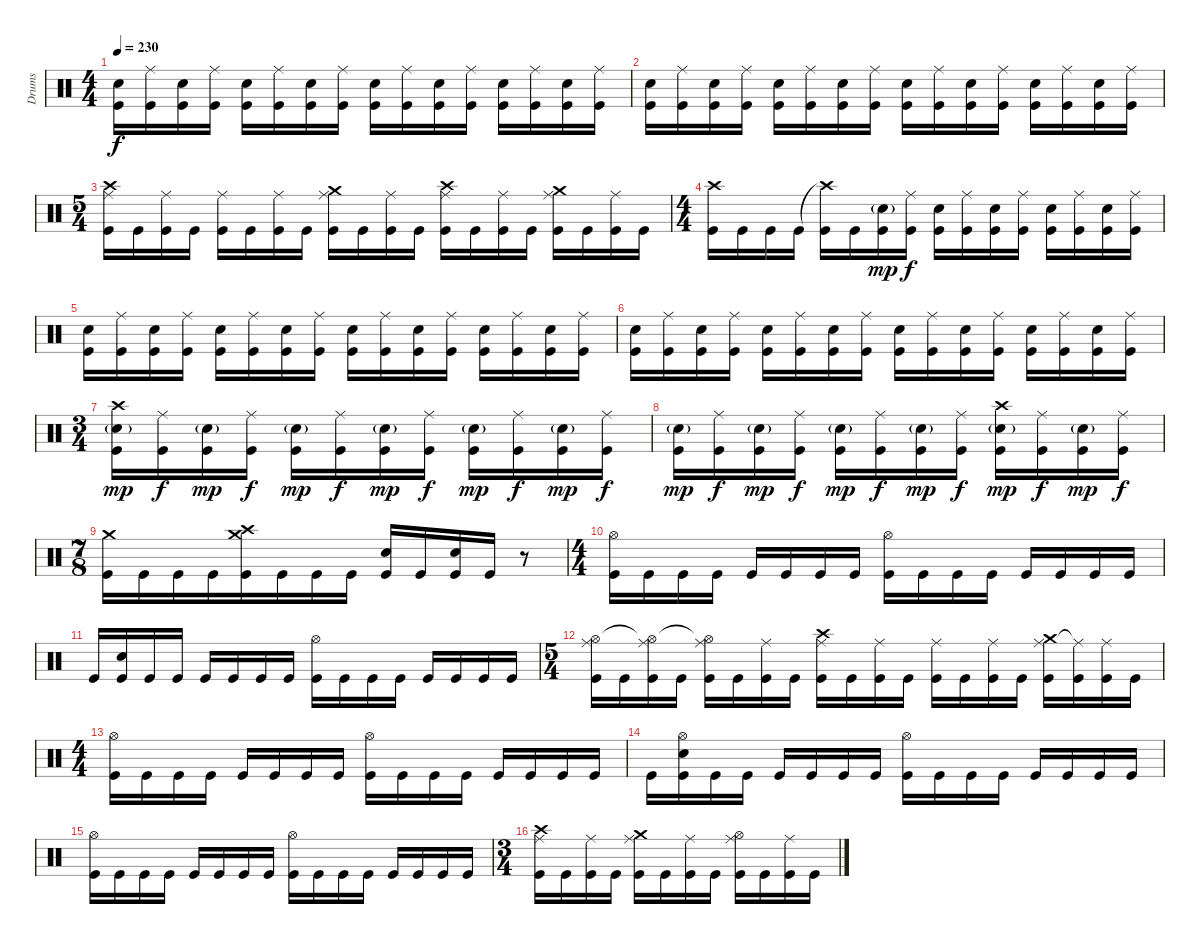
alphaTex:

\track ("Drums" "Drums") {instrument percussion}
\staff {score}
\articulation defaults
\ts (4 4)
\tempo 230
\clef neutral
\ks c
("Electric Snare (hit)" "Kick (hit)").16{dy f} ("Ride (middle)" "Kick (hit)").16 ("Electric Snare (hit)" "Kick (hit)").16 ("Ride (middle)" "Kick (hit)").16 ("Electric Snare (hit)" "Kick (hit)").16 ("Ride (middle)" "Kick (hit)").16 ("Electric Snare (hit)" "Kick (hit)").16 ("Ride (middle)" "Kick (hit)").16 ("Electric Snare (hit)" "Kick (hit)").16 ("Ride (middle)" "Kick (hit)").16 ("Electric Snare (hit)" "Kick (hit)").16 ("Ride (middle)" "Kick (hit)").16 ("Electric Snare (hit)" "Kick (hit)").16 ("Ride (middle)" "Kick (hit)").16 ("Electric Snare (hit)" "Kick (hit)").16 ("Ride (middle)" "Kick (hit)").16 |
("Electric Snare (hit)" "Kick (hit)").16 ("Ride (middle)" "Kick (hit)").16 ("Electric Snare (hit)" "Kick (hit)").16 ("Ride (middle)" "Kick (hit)").16 ("Electric Snare (hit)" "Kick (hit)").16 ("Ride (middle)" "Kick (hit)").16 ("Electric Snare (hit)" "Kick (hit)").16 ("Ride (middle)" "Kick (hit)").16 ("Electric Snare (hit)" "Kick (hit)").16 ("Ride (middle)" "Kick (hit)").16 ("Electric Snare (hit)" "Kick (hit)").16 ("Ride (middle)" "Kick (hit)").16 ("Electric Snare (hit)" "Kick (hit)").16 ("Ride (middle)" "Kick (hit)").16 ("Electric Snare (hit)" "Kick (hit)").16 ("Ride (middle)" "Kick (hit)").16 |
\ts (5 4)
("Ride (middle)" "Crash high (hit)" "Kick (hit)").16 "Kick (hit)".16 ("Ride (middle)" "Kick (hit)").16 "Kick (hit)".16 ("Ride (middle)" "Kick (hit)").16 "Kick (hit)".16 ("Ride (middle)" "Kick (hit)").16 "Kick (hit)".16 ("Ride (middle)" "Crash medium (hit)" "Kick (hit)").16 "Kick (hit)".16 ("Ride (middle)" "Kick (hit)").16 "Kick (hit)".16 ("Ride (middle)" "Crash high (hit)" "Kick (hit)").16 "Kick (hit)".16 ("Ride (middle)" "Kick (hit)").16 "Kick (hit)".16 ("Ride (middle)" "Crash medium (hit)" "Kick (hit)").16 "Kick (hit)".16 ("Ride (middle)" "Kick (hit)").16 "Kick (hit)".16 |
\ts (4 4)
("Crash high (hit)" "Kick (hit)").16 "Kick (hit)".16 "Kick (hit)".16 "Kick (hit)".16 ("Crash high (hit)"{t} "Kick (hit)").16 "Kick (hit)".16 ("Electric Snare (hit)"{g} "Kick (hit)").16{dy mp} ("Ride (middle)" "Kick (hit)").16{dy f} ("Electric Snare (hit)" "Kick (hit)").16 ("Ride (middle)" "Kick (hit)").16 ("Electric Snare (hit)" "Kick (hit)").16 ("Ride (middle)" "Kick (hit)").16 ("Electric Snare (hit)" "Kick (hit)").16 ("Ride (middle)" "Kick (hit)").16 ("Electric Snare (hit)" "Kick (hit)").16 ("Ride (middle)" "Kick (hit)").16 |
("Electric Snare (hit)" "Kick (hit)").16 ("Ride (middle)" "Kick (hit)").16 ("Electric Snare (hit)" "Kick (hit)").16 ("Ride (middle)" "Kick (hit)").16 ("Electric Snare (hit)" "Kick (hit)").16 ("Ride (middle)" "Kick (hit)").16 ("Electric Snare (hit)" "Kick (hit)").16 ("Ride (middle)" "Kick (hit)").16 ("Electric Snare (hit)" "Kick (hit)").16 ("Ride (middle)" "Kick (hit)").16 ("Electric Snare (hit)" "Kick (hit)").16 ("Ride (middle)" "Kick (hit)").16 ("Electric Snare (hit)" "Kick (hit)").16 ("Ride (middle)" "Kick (hit)").16 ("Electric Snare (hit)" "Kick (hit)").16 ("Ride (middle)" "Kick (hit)").16 |
("Electric Snare (hit)" "Kick (hit)").16 ("Ride (middle)" "Kick (hit)").16 ("Electric Snare (hit)" "Kick (hit)").16 ("Ride (middle)" "Kick (hit)").16 ("Electric Snare (hit)" "Kick (hit)").16 ("Ride (middle)" "Kick (hit)").16 ("Electric Snare (hit)" "Kick (hit)").16 ("Ride (middle)" "Kick (hit)").16 ("Electric Snare (hit)" "Kick (hit)").16 ("Ride (middle)" "Kick (hit)").16 ("Electric Snare (hit)" "Kick (hit)").16 ("Ride (middle)" "Kick (hit)").16 ("Electric Snare (hit)" "Kick (hit)").16 ("Ride (middle)" "Kick (hit)").16 ("Electric Snare (hit)" "Kick (hit)").16 ("Ride (middle)" "Kick (hit)").16 |
\ts (3 4)
("Crash high (hit)" "Electric Snare (hit)"{g} "Kick (hit)").16{dy mp} ("Ride (middle)" "Kick (hit)").16{dy f} ("Electric Snare (hit)"{g} "Kick (hit)").16{dy mp} ("Ride (middle)" "Kick (hit)").16{dy f} ("Electric Snare (hit)"{g} "Kick (hit)").16{dy mp} ("Ride (middle)" "Kick (hit)").16{dy f} ("Electric Snare (hit)"{g} "Kick (hit)").16{dy mp} ("Ride (middle)" "Kick (hit)").16{dy f} ("Electric Snare (hit)"{g} "Kick (hit)").16{dy mp} ("Ride (middle)" "Kick (hit)").16{dy f} ("Electric Snare (hit)"{g} "Kick (hit)").16{dy mp} ("Ride (middle)" "Kick (hit)").16{dy f} |
("Electric Snare (hit)"{g} "Kick (hit)").16{dy mp} ("Ride (middle)" "Kick (hit)").16{dy f} ("Electric Snare (hit)"{g} "Kick (hit)").16{dy mp} ("Ride (middle)" "Kick (hit)").16{dy f} ("Electric Snare (hit)"{g} "Kick (hit)").16{dy mp} ("Ride (middle)" "Kick (hit)").16{dy f} ("Electric Snare (hit)"{g} "Kick (hit)").16{dy mp} ("Ride (middle)" "Kick (hit)").16{dy f} ("Crash high (hit)" "Electric Snare (hit)"{g} "Kick (hit)").16{dy mp} ("Ride (middle)" "Kick (hit)").16{dy f} ("Electric Snare (hit)"{g} "Kick (hit)").16{dy mp} ("Ride (middle)" "Kick (hit)").16{dy f} |
\ts (7 8)
("Crash medium (hit)" "Kick (hit)").16 "Kick (hit)".16 "Kick (hit)".16 "Kick (hit)".16 ("Crash high (hit)" "Crash medium (hit)" "Kick (hit)").16 "Kick (hit)".16 "Kick (hit)".16 "Kick (hit)".16 ("Electric Snare (hit)" "Kick (hit)").16 "Kick (hit)".16 ("Electric Snare (hit)" "Kick (hit)").16 "Kick (hit)".16 r.8 |
\ts (4 4)
("Hi-Hat (open)" "Kick (hit)").16 "Kick (hit)".16 "Kick (hit)".16 "Kick (hit)".16 "Kick (hit)".16 "Kick (hit)".16 "Kick (hit)".16 "Kick (hit)".16 ("Hi-Hat (open)" "Kick (hit)").16 "Kick (hit)".16 "Kick (hit)".16 "Kick (hit)".16 "Kick (hit)".16 "Kick (hit)".16 "Kick (hit)".16 "Kick (hit)".16 |
"Kick (hit)".16 ("Electric Snare (hit)" "Kick (hit)").16 "Kick (hit)".16 "Kick (hit)".16 "Kick (hit)".16 "Kick (hit)".16 "Kick (hit)".16 "Kick (hit)".16 ("Hi-Hat (open)" "Kick (hit)").16 "Kick (hit)".16 "Kick (hit)".16 "Kick (hit)".16 "Kick (hit)".16 "Kick (hit)".16 "Kick (hit)".16 "Kick (hit)".16 |
\ts (5 4)
("Ride (middle)" "Hi-Hat (open)" "Kick (hit)").16 "Kick (hit)".16 ("Ride (middle)" "Hi-Hat (open)"{t} "Kick (hit)").16 "Kick (hit)".16 ("Ride (middle)" "Hi-Hat (open)"{t} "Kick (hit)").16 "Kick (hit)".16 ("Ride (middle)" "Kick (hit)").16 "Kick (hit)".16 ("Ride (middle)" "Crash high (hit)" "Kick (hit)").16 "Kick (hit)".16 ("Ride (middle)" "Kick (hit)").16 "Kick (hit)".16 ("Ride (middle)" "Kick (hit)").16 "Kick (hit)".16 ("Ride (middle)" "Kick (hit)").16 "Kick (hit)".16 ("Ride (middle)" "Crash medium (hit)" "Kick (hit)").16 ("Ride (middle)"{t} "Kick (hit)").16 ("Ride (middle)" "Kick (hit)").16 "Kick (hit)".16 |
\ts (4 4)
("Hi-Hat (open)" "Kick (hit)").16 "Kick (hit)".16 "Kick (hit)".16 "Kick (hit)".16 "Kick (hit)".16 "Kick (hit)".16 "Kick (hit)".16 "Kick (hit)".16 ("Hi-Hat (open)" "Kick (hit)").16 "Kick (hit)".16 "Kick (hit)".16 "Kick (hit)".16 "Kick (hit)".16 "Kick (hit)".16 "Kick (hit)".16 "Kick (hit)".16 |
"Kick (hit)".16 ("Hi-Hat (open)" "Electric Snare (hit)" "Kick (hit)").16 "Kick (hit)".16 "Kick (hit)".16 "Kick (hit)".16 "Kick (hit)".16 "Kick (hit)".16 "Kick (hit)".16 ("Hi-Hat (open)" "Kick (hit)").16 "Kick (hit)".16 "Kick (hit)".16 "Kick (hit)".16 "Kick (hit)".16 "Kick (hit)".16 "Kick (hit)".16 "Kick (hit)".16 |
("Hi-Hat (open)" "Kick (hit)").16 "Kick (hit)".16 "Kick (hit)".16 "Kick (hit)".16 "Kick (hit)".16 "Kick (hit)".16 "Kick (hit)".16 "Kick (hit)".16 ("Hi-Hat (open)" "Kick (hit)").16 "Kick (hit)".16 "Kick (hit)".16 "Kick (hit)".16 "Kick (hit)".16 "Kick (hit)".16 "Kick (hit)".16 "Kick (hit)".16 |
\ts (3 4)
("Ride (middle)" "Crash high (hit)" "Kick (hit)").16 "Kick (hit)".16 ("Ride (middle)" "Kick (hit)").16 "Kick (hit)".16 ("Ride (middle)" "Crash medium (hit)" "Kick (hit)").16 "Kick (hit)".16 ("Ride (middle)" "Kick (hit)").16 "Kick (hit)".16 ("Ride (middle)" "Hi-Hat (open)" "Kick (hit)").16 "Kick (hit)".16 ("Ride (middle)" "Kick (hit)").16 "Kick (hit)".16
